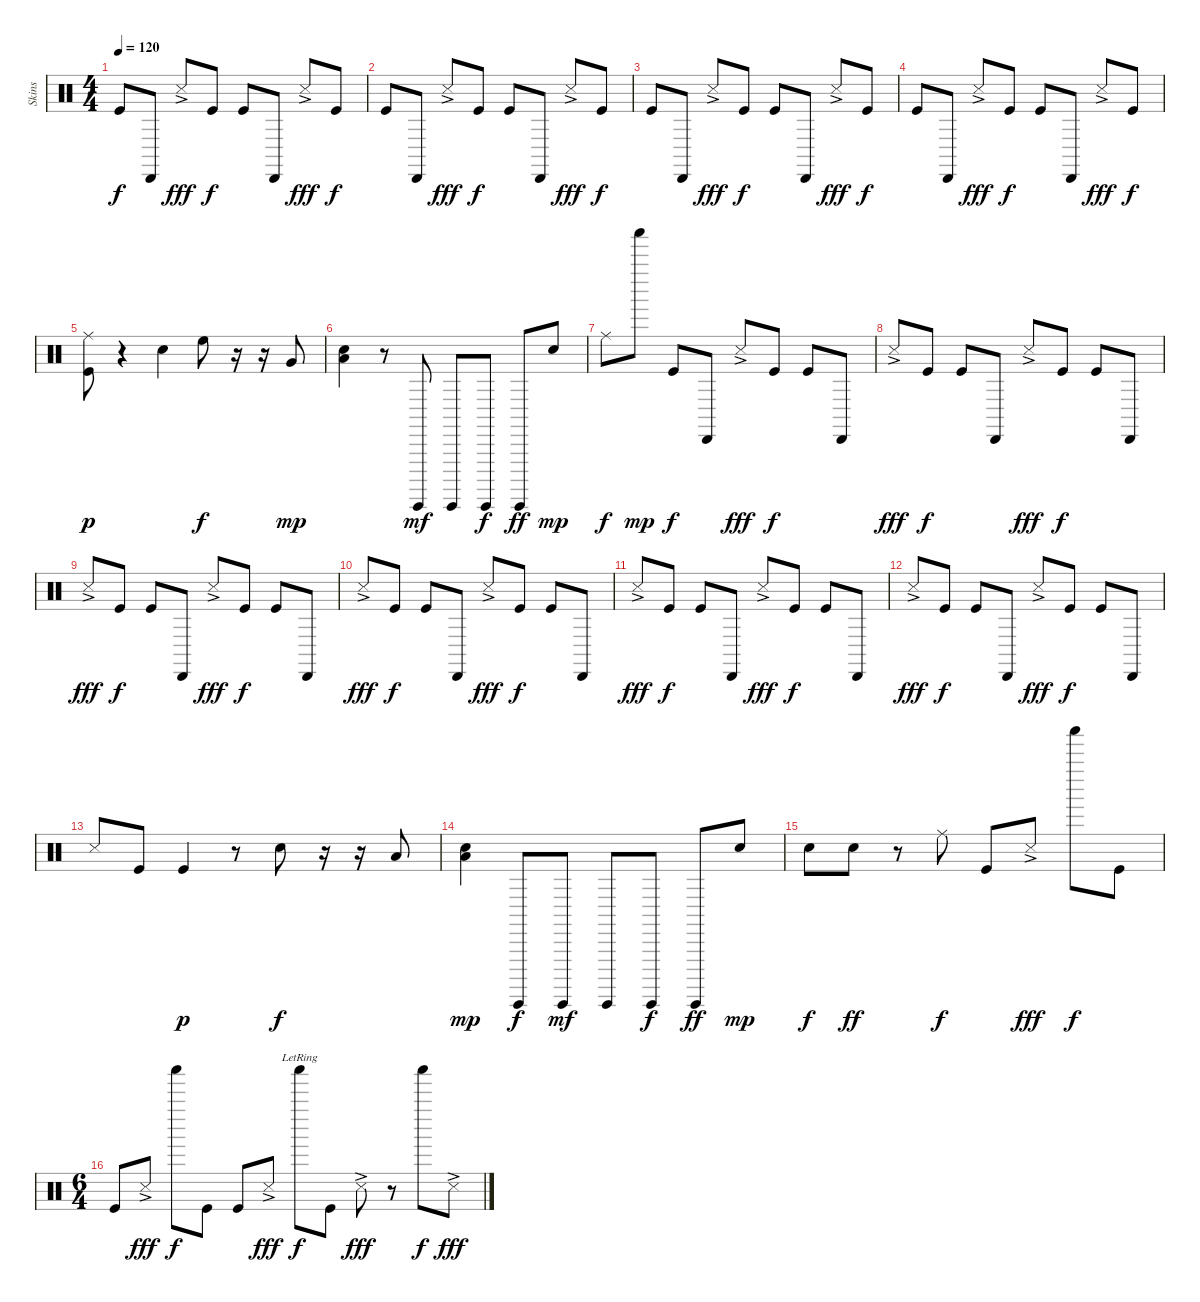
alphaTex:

\track ("Skins" "Skins") {instrument percussion}
\staff {score}
\articulation defaults
\ts (4 4)
\tempo 120
\clef neutral
\ks c "Kick (hit)".8{dy f} "Cabasa (hit)".8 "Snare (side stick) 3"{ac}.8{dy fff} "Kick (hit)".8{dy f} "Kick (hit)".8 "Cabasa (hit)".8 "Snare (side stick) 3"{ac}.8{dy fff} "Kick (hit)".8{dy f}
|
"Kick (hit)".8 "Cabasa (hit)".8 "Snare (side stick) 3"{ac}.8{dy fff} "Kick (hit)".8{dy f} "Kick (hit)".8 "Cabasa (hit)".8 "Snare (side stick) 3"{ac}.8{dy fff} "Kick (hit)".8{dy f} |
"Kick (hit)".8 "Cabasa (hit)".8 "Snare (side stick) 3"{ac}.8{dy fff} "Kick (hit)".8{dy f} "Kick (hit)".8 "Cabasa (hit)".8 "Snare (side stick) 3"{ac}.8{dy fff} "Kick (hit)".8{dy f} |
"Kick (hit)".8 "Cabasa (hit)".8 "Snare (side stick) 3"{ac}.8{dy fff} "Kick (hit)".8{dy f} "Kick (hit)".8 "Cabasa (hit)".8 "Snare (side stick) 3"{ac}.8{dy fff} "Kick (hit)".8{dy f} |
("Ride (middle)" "Kick (hit)").8{dy p} r.4 "Snare (hit) 2".4 "High Floor Tom (hit)".8{dy f} r.16 r.16 "Very Low Tom (hit)".8{dy mp} |
("Electric Snare (hit)" "Low Floor Tom (hit)").4 r.8 "Guiro (hit)".8{dy mf} "Guiro (hit)".8 "Guiro (hit)".8{dy f} "Guiro (hit)".8{dy ff} "Electric Snare (hit)".8{dy mp} |
"Ride (middle)".8{dy f} "Shaker (hit)".8{dy mp} "Kick (hit)".8{dy f} "Cabasa (hit)".8 "Snare (side stick) 3"{ac}.8{dy fff} "Kick (hit)".8{dy f} "Kick (hit)".8 "Cabasa (hit)".8 |
"Snare (side stick) 3"{ac}.8{dy fff} "Kick (hit)".8{dy f} "Kick (hit)".8 "Cabasa (hit)".8 "Snare (side stick) 3"{ac}.8{dy fff} "Kick (hit)".8{dy f} "Kick (hit)".8 "Cabasa (hit)".8 |
"Snare (side stick) 3"{ac}.8{dy fff} "Kick (hit)".8{dy f} "Kick (hit)".8 "Cabasa (hit)".8 "Snare (side stick) 3"{ac}.8{dy fff} "Kick (hit)".8{dy f} "Kick (hit)".8 "Cabasa (hit)".8 |
"Snare (side stick) 3"{ac}.8{dy fff} "Kick (hit)".8{dy f} "Kick (hit)".8 "Cabasa (hit)".8 "Snare (side stick) 3"{ac}.8{dy fff} "Kick (hit)".8{dy f} "Kick (hit)".8 "Cabasa (hit)".8 |
"Snare (side stick) 3"{ac}.8{dy fff} "Kick (hit)".8{dy f} "Kick (hit)".8 "Cabasa (hit)".8 "Snare (side stick) 3"{ac}.8{dy fff} "Kick (hit)".8{dy f} "Kick (hit)".8 "Cabasa (hit)".8 |
"Snare (side stick) 3"{ac}.8{dy fff} "Kick (hit)".8{dy f} "Kick (hit)".8 "Cabasa (hit)".8 "Snare (side stick) 3"{ac}.8{dy fff} "Kick (hit)".8{dy f} "Kick (hit)".8 "Cabasa (hit)".8 |
"Snare (side stick) 3".8 "Kick (hit)".8 "Kick (hit)".4{dy p} r.8 "Electric Snare (hit)".8{dy f} r.16 r.16 "Low Tom (hit)".8 |
("Electric Snare (hit)" "Low Floor Tom (hit)").4{dy mp} "Guiro (hit)".8{dy f} "Guiro (hit)".8{dy mf} "Guiro (hit)".8 "Guiro (hit)".8{dy f} "Guiro (hit)".8{dy ff} "Electric Snare (hit)".8{dy mp} |
"Electric Snare (hit)".8{dy f} "Electric Snare (hit)".8{dy ff} r.8 "Ride (middle)".8{dy f} "Kick (hit)".8 "Snare (side stick) 3"{ac}.8{dy fff} "Shaker (hit)".8{dy f} "Kick (hit)".8 |
\ts (6 4)
"Kick (hit)".8 "Snare (side stick) 3"{ac}.8{dy fff} "Shaker (hit)".8{dy f} "Kick (hit)".8 "Kick (hit)".8 "Snare (side stick) 3"{ac}.8{dy fff} "Shaker (hit)"{lr}.8{dy f} "Kick (hit)".8 "Snare (side stick) 3"{ac}.8{dy fff} r.8 "Shaker (hit)".8{dy f} "Snare (side stick) 3"{ac}.8{dy fff}
